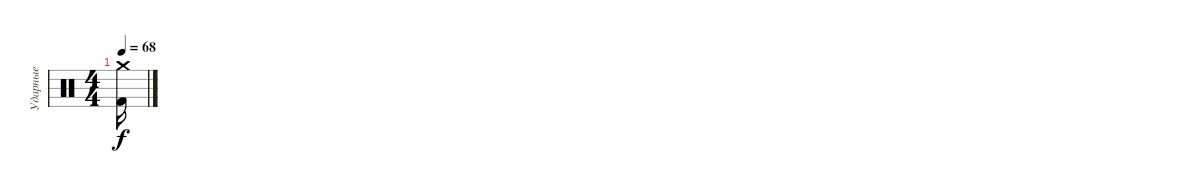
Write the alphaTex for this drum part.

\track ("Ударные" "Ударные") {instrument percussion}
\staff {score}
\articulation defaults
\ts (4 4)
\tempo 68
\clef neutral
\ks c
("Crash medium (hit)" "Kick (hit) 2").16{dy f}
